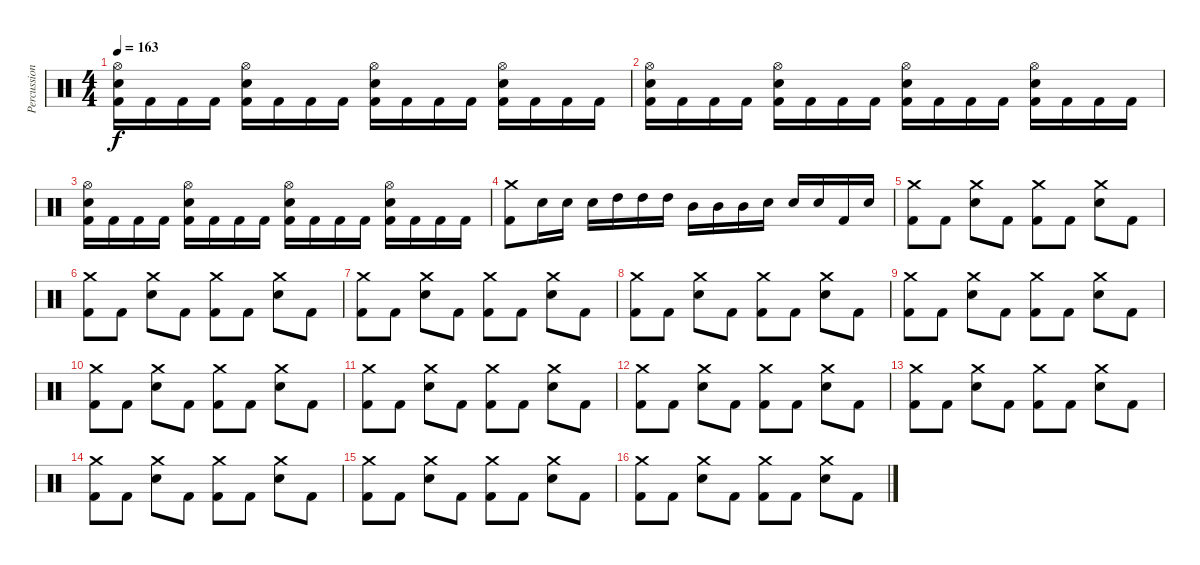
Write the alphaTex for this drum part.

\track ("Percussion" "Percussion") {instrument percussion}
\staff {score}
\articulation defaults
\ts (4 4)
\tempo 163
\clef neutral
\ks c
("Hi-Hat (open)" "Electric Snare (hit)" "Kick (hit) 2").16{dy f} "Kick (hit) 2".16 "Kick (hit) 2".16 "Kick (hit) 2".16 ("Hi-Hat (open)" "Electric Snare (hit)" "Kick (hit) 2").16 "Kick (hit) 2".16 "Kick (hit) 2".16 "Kick (hit) 2".16 ("Hi-Hat (open)" "Electric Snare (hit)" "Kick (hit) 2").16 "Kick (hit) 2".16 "Kick (hit) 2".16 "Kick (hit) 2".16 ("Hi-Hat (open)" "Electric Snare (hit)" "Kick (hit) 2").16 "Kick (hit) 2".16 "Kick (hit) 2".16 "Kick (hit) 2".16 |
("Hi-Hat (open)" "Electric Snare (hit)" "Kick (hit) 2").16 "Kick (hit) 2".16 "Kick (hit) 2".16 "Kick (hit) 2".16 ("Hi-Hat (open)" "Electric Snare (hit)" "Kick (hit) 2").16 "Kick (hit) 2".16 "Kick (hit) 2".16 "Kick (hit) 2".16 ("Hi-Hat (open)" "Electric Snare (hit)" "Kick (hit) 2").16 "Kick (hit) 2".16 "Kick (hit) 2".16 "Kick (hit) 2".16 ("Hi-Hat (open)" "Electric Snare (hit)" "Kick (hit) 2").16 "Kick (hit) 2".16 "Kick (hit) 2".16 "Kick (hit) 2".16 |
("Hi-Hat (open)" "Electric Snare (hit)" "Kick (hit) 2").16 "Kick (hit) 2".16 "Kick (hit) 2".16 "Kick (hit) 2".16 ("Hi-Hat (open)" "Electric Snare (hit)" "Kick (hit) 2").16 "Kick (hit) 2".16 "Kick (hit) 2".16 "Kick (hit) 2".16 ("Hi-Hat (open)" "Electric Snare (hit)" "Kick (hit) 2").16 "Kick (hit) 2".16 "Kick (hit) 2".16 "Kick (hit) 2".16 ("Hi-Hat (open)" "Electric Snare (hit)" "Kick (hit) 2").16 "Kick (hit) 2".16 "Kick (hit) 2".16 "Kick (hit) 2".16 |
("Crash medium (hit)" "Kick (hit) 2").8 "Electric Snare (hit)".16 "Electric Snare (hit)".16 "Electric Snare (hit)".16 "High Tom (hit)".16 "High Tom (hit)".16 "High Tom (hit)".16 "Mid Tom (hit)".16 "Mid Tom (hit)".16 "Mid Tom (hit)".16 "Electric Snare (hit)".16 "Electric Snare (hit)".16 "Electric Snare (hit)".16 "Kick (hit) 2".16 "Electric Snare (hit)".16 |
("Crash medium (hit)" "Kick (hit) 2").8 "Kick (hit) 2".8 ("Crash medium (hit)" "Electric Snare (hit)").8 "Kick (hit) 2".8 ("Crash medium (hit)" "Kick (hit) 2").8 "Kick (hit) 2".8 ("Crash medium (hit)" "Electric Snare (hit)").8 "Kick (hit) 2".8 |
("Crash medium (hit)" "Kick (hit) 2").8 "Kick (hit) 2".8 ("Crash medium (hit)" "Electric Snare (hit)").8 "Kick (hit) 2".8 ("Crash medium (hit)" "Kick (hit) 2").8 "Kick (hit) 2".8 ("Crash medium (hit)" "Electric Snare (hit)").8 "Kick (hit) 2".8 |
("Crash medium (hit)" "Kick (hit) 2").8 "Kick (hit) 2".8 ("Crash medium (hit)" "Electric Snare (hit)").8 "Kick (hit) 2".8 ("Crash medium (hit)" "Kick (hit) 2").8 "Kick (hit) 2".8 ("Crash medium (hit)" "Electric Snare (hit)").8 "Kick (hit) 2".8 |
("Crash medium (hit)" "Kick (hit) 2").8 "Kick (hit) 2".8 ("Crash medium (hit)" "Electric Snare (hit)").8 "Kick (hit) 2".8 ("Crash medium (hit)" "Kick (hit) 2").8 "Kick (hit) 2".8 ("Crash medium (hit)" "Electric Snare (hit)").8 "Kick (hit) 2".8 |
("Crash medium (hit)" "Kick (hit) 2").8 "Kick (hit) 2".8 ("Crash medium (hit)" "Electric Snare (hit)").8 "Kick (hit) 2".8 ("Crash medium (hit)" "Kick (hit) 2").8 "Kick (hit) 2".8 ("Crash medium (hit)" "Electric Snare (hit)").8 "Kick (hit) 2".8 |
("Crash medium (hit)" "Kick (hit) 2").8 "Kick (hit) 2".8 ("Crash medium (hit)" "Electric Snare (hit)").8 "Kick (hit) 2".8 ("Crash medium (hit)" "Kick (hit) 2").8 "Kick (hit) 2".8 ("Crash medium (hit)" "Electric Snare (hit)").8 "Kick (hit) 2".8 |
("Crash medium (hit)" "Kick (hit) 2").8 "Kick (hit) 2".8 ("Crash medium (hit)" "Electric Snare (hit)").8 "Kick (hit) 2".8 ("Crash medium (hit)" "Kick (hit) 2").8 "Kick (hit) 2".8 ("Crash medium (hit)" "Electric Snare (hit)").8 "Kick (hit) 2".8 |
("Crash medium (hit)" "Kick (hit) 2").8 "Kick (hit) 2".8 ("Crash medium (hit)" "Electric Snare (hit)").8 "Kick (hit) 2".8 ("Crash medium (hit)" "Kick (hit) 2").8 "Kick (hit) 2".8 ("Crash medium (hit)" "Electric Snare (hit)").8 "Kick (hit) 2".8 |
("Crash medium (hit)" "Kick (hit) 2").8 "Kick (hit) 2".8 ("Crash medium (hit)" "Electric Snare (hit)").8 "Kick (hit) 2".8 ("Crash medium (hit)" "Kick (hit) 2").8 "Kick (hit) 2".8 ("Crash medium (hit)" "Electric Snare (hit)").8 "Kick (hit) 2".8 |
("Crash medium (hit)" "Kick (hit) 2").8 "Kick (hit) 2".8 ("Crash medium (hit)" "Electric Snare (hit)").8 "Kick (hit) 2".8 ("Crash medium (hit)" "Kick (hit) 2").8 "Kick (hit) 2".8 ("Crash medium (hit)" "Electric Snare (hit)").8 "Kick (hit) 2".8 |
("Crash medium (hit)" "Kick (hit) 2").8 "Kick (hit) 2".8 ("Crash medium (hit)" "Electric Snare (hit)").8 "Kick (hit) 2".8 ("Crash medium (hit)" "Kick (hit) 2").8 "Kick (hit) 2".8 ("Crash medium (hit)" "Electric Snare (hit)").8 "Kick (hit) 2".8 |
("Crash medium (hit)" "Kick (hit) 2").8 "Kick (hit) 2".8 ("Crash medium (hit)" "Electric Snare (hit)").8 "Kick (hit) 2".8 ("Crash medium (hit)" "Kick (hit) 2").8 "Kick (hit) 2".8 ("Crash medium (hit)" "Electric Snare (hit)").8 "Kick (hit) 2".8
